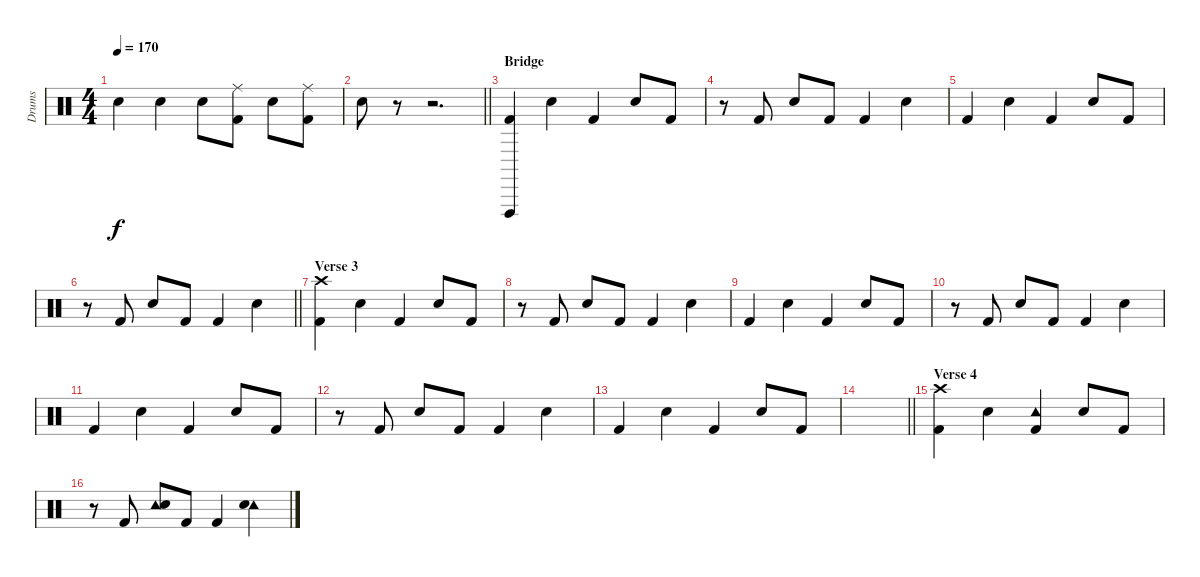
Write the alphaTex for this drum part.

\track ("Drums" "Drums") {instrument percussion}
\staff {score}
\articulation defaults
\ts (4 4)
\tempo 170
\clef neutral
\ks c "Electric Snare (hit)".4{dy f} "Electric Snare (hit)".4 "Electric Snare (hit)".8
("Ride (middle)" "Kick (hit) 2").8 "Electric Snare (hit)".8 ("Ride (middle)" "Kick (hit) 2").8 |
\barLineRight lightlight "Electric Snare (hit)".8
r.8 r.2{d} |
\section ("" "Bridge")
("Vibraslap (hit)" "Kick (hit) 2").4 "Electric Snare (hit)".4 "Kick (hit) 2".4 "Electric Snare (hit)".8 "Kick (hit) 2".8 |
r.8 "Kick (hit) 2".8 "Electric Snare (hit)".8 "Kick (hit) 2".8 "Kick (hit) 2".4 "Electric Snare (hit)".4 |
"Kick (hit) 2".4 "Electric Snare (hit)".4 "Kick (hit) 2".4 "Electric Snare (hit)".8 "Kick (hit) 2".8 |
\barLineRight lightlight
r.8 "Kick (hit) 2".8 "Electric Snare (hit)".8 "Kick (hit) 2".8 "Kick (hit) 2".4 "Electric Snare (hit)".4 |
\section ("" "Verse 3")
("Crash high (hit)" "Kick (hit) 2").4 "Electric Snare (hit)".4 "Kick (hit) 2".4 "Electric Snare (hit)".8 "Kick (hit) 2".8 |
r.8 "Kick (hit) 2".8 "Electric Snare (hit)".8 "Kick (hit) 2".8 "Kick (hit) 2".4 "Electric Snare (hit)".4 |
"Kick (hit) 2".4 "Electric Snare (hit)".4 "Kick (hit) 2".4 "Electric Snare (hit)".8 "Kick (hit) 2".8 |
r.8 "Kick (hit) 2".8 "Electric Snare (hit)".8 "Kick (hit) 2".8 "Kick (hit) 2".4 "Electric Snare (hit)".4 |
"Kick (hit) 2".4 "Electric Snare (hit)".4 "Kick (hit) 2".4 "Electric Snare (hit)".8 "Kick (hit) 2".8 |
r.8 "Kick (hit) 2".8 "Electric Snare (hit)".8 "Kick (hit) 2".8 "Kick (hit) 2".4 "Electric Snare (hit)".4 |
"Kick (hit) 2".4 "Electric Snare (hit)".4 "Kick (hit) 2".4 "Electric Snare (hit)".8 "Kick (hit) 2".8 |
\barLineRight lightlight
|
\section ("" "Verse 4")
("Crash high (hit)" "Kick (hit) 2").4 "Electric Snare (hit)".4 ("Tambourine (hit)" "Kick (hit) 2").4 "Electric Snare (hit)".8 "Kick (hit) 2".8 |
r.8 "Kick (hit) 2".8 ("Tambourine (hit)" "Electric Snare (hit)").8 "Kick (hit) 2".8 "Kick (hit) 2".4 ("Tambourine (hit)" "Electric Snare (hit)").4
